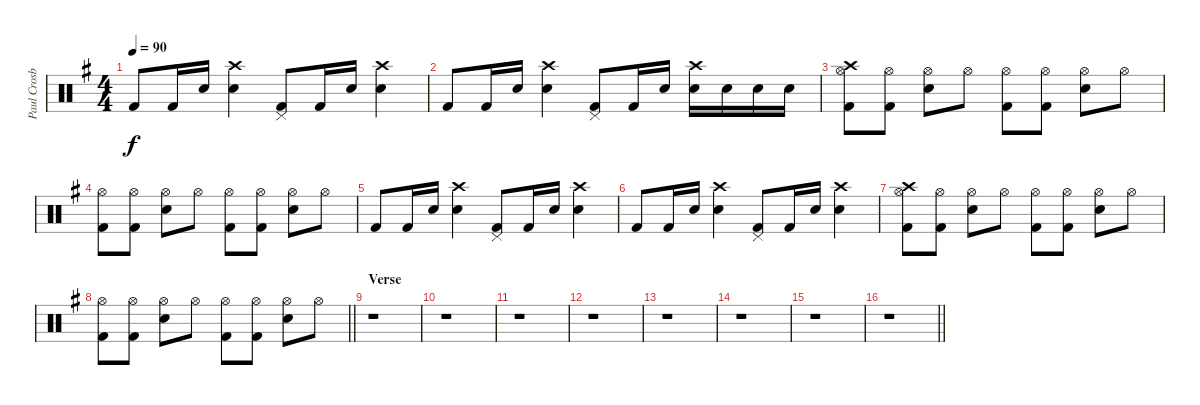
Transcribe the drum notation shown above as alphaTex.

\track ("Paul Crosby (Drums)" "Paul Crosb") {instrument percussion}
\staff {score}
\articulation defaults
\ts (4 4)
\tempo 90
\clef neutral
\ks g "Kick (hit) 2".8{dy f} "Kick (hit) 2".16 "Electric Snare (hit)".16
("Crash high (hit)" "Electric Snare (hit)").4 ("Pedal Hi-Hat (hit)" "Kick (hit) 2").8 "Kick (hit) 2".16 "Electric Snare (hit)".16 ("Crash high (hit)" "Electric Snare (hit)").4 |
"Kick (hit) 2".8 "Kick (hit) 2".16 "Electric Snare (hit)".16 ("Crash high (hit)" "Electric Snare (hit)").4 ("Pedal Hi-Hat (hit)" "Kick (hit) 2").8 "Kick (hit) 2".16 "Electric Snare (hit)".16 ("Crash high (hit)" "Electric Snare (hit)").16 "Electric Snare (hit)".16 "Electric Snare (hit)".16 "Electric Snare (hit)".16 |
("Hi-Hat (open)" "Kick (hit) 2" "Crash high (hit)").8 ("Hi-Hat (open)" "Kick (hit) 2").8 ("Hi-Hat (open)" "Electric Snare (hit)").8 "Hi-Hat (open)".8 ("Hi-Hat (open)" "Kick (hit) 2").8 ("Hi-Hat (open)" "Kick (hit) 2").8 ("Hi-Hat (open)" "Electric Snare (hit)").8 "Hi-Hat (open)".8 |
("Hi-Hat (open)" "Kick (hit) 2").8 ("Hi-Hat (open)" "Kick (hit) 2").8 ("Hi-Hat (open)" "Electric Snare (hit)").8 "Hi-Hat (open)".8 ("Hi-Hat (open)" "Kick (hit) 2").8 ("Hi-Hat (open)" "Kick (hit) 2").8 ("Hi-Hat (open)" "Electric Snare (hit)").8 "Hi-Hat (open)".8 |
"Kick (hit) 2".8 "Kick (hit) 2".16 "Electric Snare (hit)".16 ("Crash high (hit)" "Electric Snare (hit)").4 ("Pedal Hi-Hat (hit)" "Kick (hit) 2").8 "Kick (hit) 2".16 "Electric Snare (hit)".16 ("Crash high (hit)" "Electric Snare (hit)").4 |
"Kick (hit) 2".8 "Kick (hit) 2".16 "Electric Snare (hit)".16 ("Crash high (hit)" "Electric Snare (hit)").4 ("Pedal Hi-Hat (hit)" "Kick (hit) 2").8 "Kick (hit) 2".16 "Electric Snare (hit)".16 ("Crash high (hit)" "Electric Snare (hit)").4 |
("Hi-Hat (open)" "Kick (hit) 2" "Crash high (hit)").8 ("Hi-Hat (open)" "Kick (hit) 2").8 ("Hi-Hat (open)" "Electric Snare (hit)").8 "Hi-Hat (open)".8 ("Hi-Hat (open)" "Kick (hit) 2").8 ("Hi-Hat (open)" "Kick (hit) 2").8 ("Hi-Hat (open)" "Electric Snare (hit)").8 "Hi-Hat (open)".8 |
\barLineRight lightlight
("Hi-Hat (open)" "Kick (hit) 2").8 ("Hi-Hat (open)" "Kick (hit) 2").8 ("Hi-Hat (open)" "Electric Snare (hit)").8 "Hi-Hat (open)".8 ("Hi-Hat (open)" "Kick (hit) 2").8 ("Hi-Hat (open)" "Kick (hit) 2").8 ("Hi-Hat (open)" "Electric Snare (hit)").8 "Hi-Hat (open)".8 |
\section ("" "Verse")
r.1 |
r.1 |
r.1 |
r.1 |
r.1 |
r.1 |
r.1 |
\barLineRight lightlight
r.1
